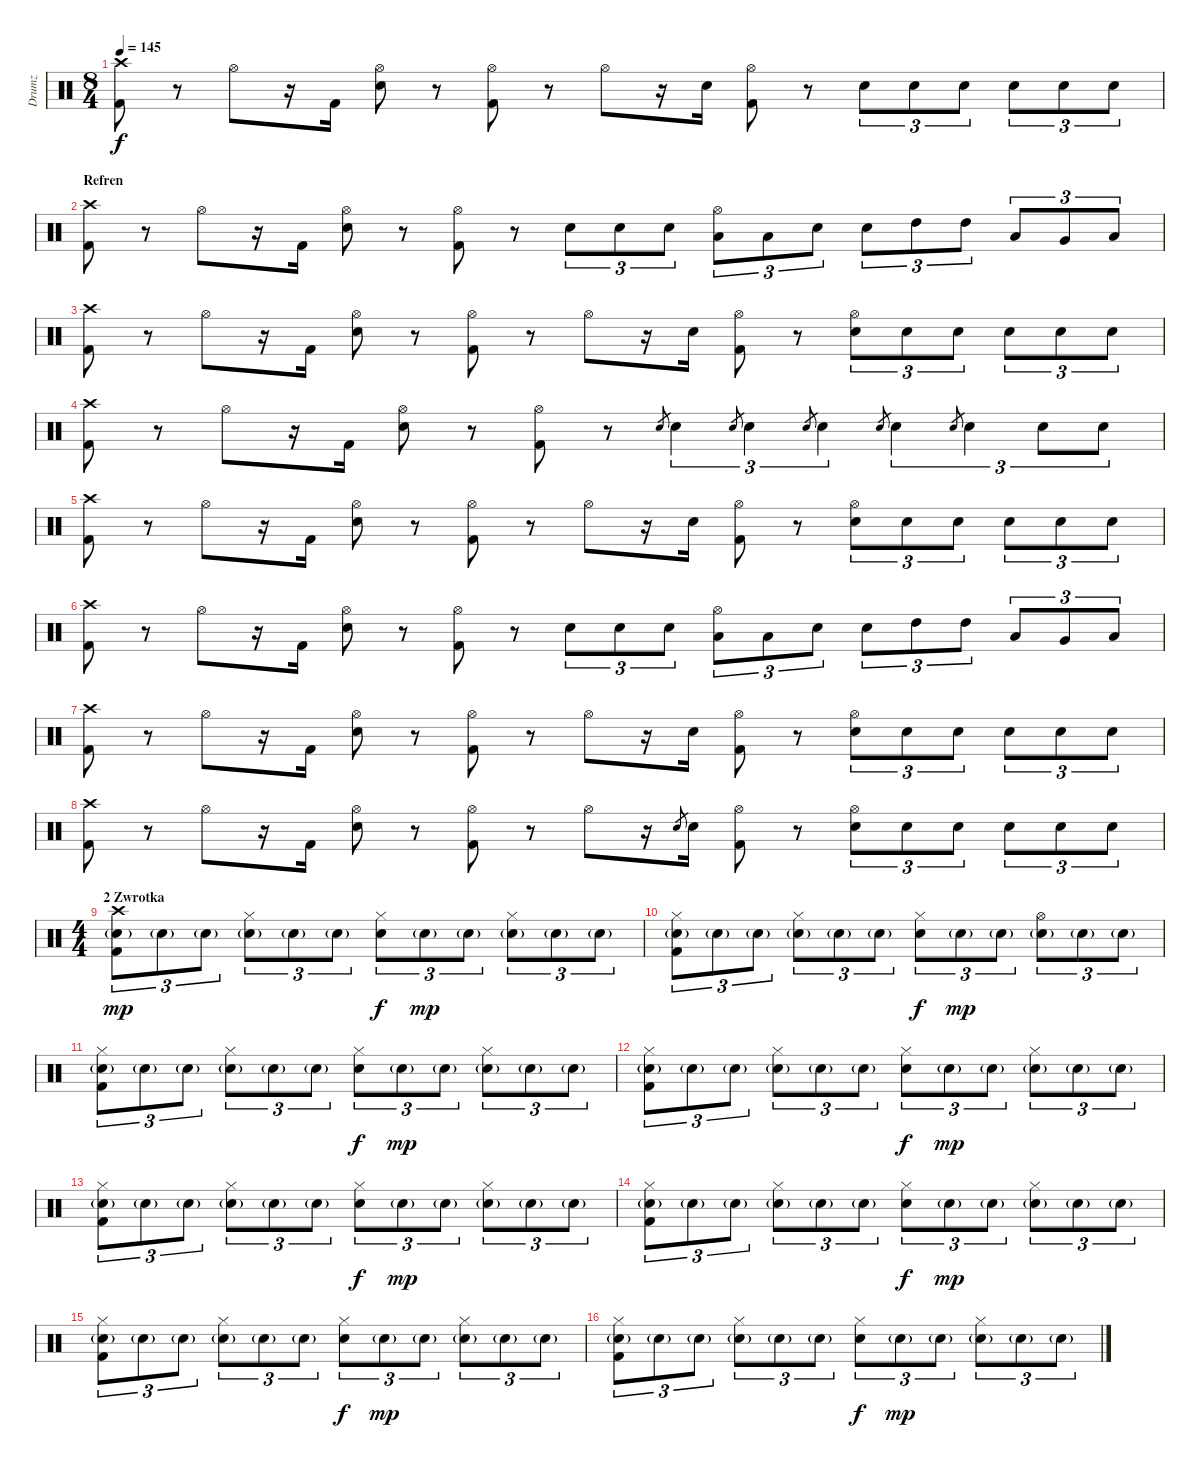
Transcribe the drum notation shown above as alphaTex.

\track ("Drumz" "Drumz") {instrument percussion}
\staff {score}
\articulation defaults
\ts (8 4)
\tempo 145
\clef neutral
\ks c
("Crash high (hit)" "Kick (hit) 2").8{dy f} r.8 "Hi-Hat (open)".8 r.16 "Kick (hit) 2".16 ("Hi-Hat (open)" "Electric Snare (hit)").8 r.8 ("Hi-Hat (open)" "Kick (hit) 2").8 r.8 "Hi-Hat (open)".8 r.16 "Electric Snare (hit)".16 ("Hi-Hat (open)" "Kick (hit) 2").8 r.8 "Electric Snare (hit)".8{tu (3 2)} "Electric Snare (hit)".8{tu (3 2)} "Electric Snare (hit)".8{tu (3 2)} "Electric Snare (hit)".8{tu (3 2)} "Electric Snare (hit)".8{tu (3 2)} "Electric Snare (hit)".8{tu (3 2)} |
\section ("" "Refren")
("Crash high (hit)" "Kick (hit) 2").8 r.8 "Hi-Hat (open)".8 r.16 "Kick (hit) 2".16 ("Hi-Hat (open)" "Electric Snare (hit)").8 r.8 ("Hi-Hat (open)" "Kick (hit) 2").8 r.8 "Electric Snare (hit)".8{tu (3 2)} "Electric Snare (hit)".8{tu (3 2)} "Electric Snare (hit)".8{tu (3 2)} ("Hi-Hat (open)" "Low Floor Tom (hit)").8{tu (3 2)} "Low Floor Tom (hit)".8{tu (3 2)} "Electric Snare (hit)".8{tu (3 2)} "Electric Snare (hit)".8{tu (3 2)} "High Tom (hit)".8{tu (3 2)} "High Tom (hit)".8{tu (3 2)} "Low Tom (hit)".8{tu (3 2)} "Very Low Tom (hit)".8{tu (3 2)} "Low Floor Tom (hit)".8{tu (3 2)} |
("Crash high (hit)" "Kick (hit) 2").8 r.8 "Hi-Hat (open)".8 r.16 "Kick (hit) 2".16 ("Hi-Hat (open)" "Electric Snare (hit)").8 r.8 ("Hi-Hat (open)" "Kick (hit) 2").8 r.8 "Hi-Hat (open)".8 r.16 "Electric Snare (hit)".16 ("Hi-Hat (open)" "Kick (hit) 2").8 r.8 ("Hi-Hat (open)" "Electric Snare (hit)").8{tu (3 2)} "Electric Snare (hit)".8{tu (3 2)} "Electric Snare (hit)".8{tu (3 2)} "Electric Snare (hit)".8{tu (3 2)} "Electric Snare (hit)".8{tu (3 2)} "Electric Snare (hit)".8{tu (3 2)} |
("Crash high (hit)" "Kick (hit) 2").8 r.8 "Hi-Hat (open)".8 r.16 "Kick (hit) 2".16 ("Hi-Hat (open)" "Electric Snare (hit)").8 r.8 ("Hi-Hat (open)" "Kick (hit) 2").8 r.8 "Electric Snare (hit)".8{gr} "Electric Snare (hit)".4{tu (3 2)} "Electric Snare (hit)".8{gr} "Electric Snare (hit)".4{tu (3 2)} "Electric Snare (hit)".8{gr} "Electric Snare (hit)".4{tu (3 2)} "Electric Snare (hit)".8{gr} "Electric Snare (hit)".4{tu (3 2)} "Electric Snare (hit)".8{gr} "Electric Snare (hit)".4{tu (3 2)} "Electric Snare (hit)".8{tu (3 2)} "Electric Snare (hit)".8{tu (3 2)} |
("Crash high (hit)" "Kick (hit) 2").8 r.8 "Hi-Hat (open)".8 r.16 "Kick (hit) 2".16 ("Hi-Hat (open)" "Electric Snare (hit)").8 r.8 ("Hi-Hat (open)" "Kick (hit) 2").8 r.8 "Hi-Hat (open)".8 r.16 "Electric Snare (hit)".16 ("Hi-Hat (open)" "Kick (hit) 2").8 r.8 ("Hi-Hat (open)" "Electric Snare (hit)").8{tu (3 2)} "Electric Snare (hit)".8{tu (3 2)} "Electric Snare (hit)".8{tu (3 2)} "Electric Snare (hit)".8{tu (3 2)} "Electric Snare (hit)".8{tu (3 2)} "Electric Snare (hit)".8{tu (3 2)} |
("Crash high (hit)" "Kick (hit) 2").8 r.8 "Hi-Hat (open)".8 r.16 "Kick (hit) 2".16 ("Hi-Hat (open)" "Electric Snare (hit)").8 r.8 ("Hi-Hat (open)" "Kick (hit) 2").8 r.8 "Electric Snare (hit)".8{tu (3 2)} "Electric Snare (hit)".8{tu (3 2)} "Electric Snare (hit)".8{tu (3 2)} ("Hi-Hat (open)" "Low Floor Tom (hit)").8{tu (3 2)} "Low Floor Tom (hit)".8{tu (3 2)} "Electric Snare (hit)".8{tu (3 2)} "Electric Snare (hit)".8{tu (3 2)} "High Tom (hit)".8{tu (3 2)} "High Tom (hit)".8{tu (3 2)} "Low Tom (hit)".8{tu (3 2)} "Very Low Tom (hit)".8{tu (3 2)} "Low Floor Tom (hit)".8{tu (3 2)} |
("Crash high (hit)" "Kick (hit) 2").8 r.8 "Hi-Hat (open)".8 r.16 "Kick (hit) 2".16 ("Hi-Hat (open)" "Electric Snare (hit)").8 r.8 ("Hi-Hat (open)" "Kick (hit) 2").8 r.8 "Hi-Hat (open)".8 r.16 "Electric Snare (hit)".16 ("Hi-Hat (open)" "Kick (hit) 2").8 r.8 ("Hi-Hat (open)" "Electric Snare (hit)").8{tu (3 2)} "Electric Snare (hit)".8{tu (3 2)} "Electric Snare (hit)".8{tu (3 2)} "Electric Snare (hit)".8{tu (3 2)} "Electric Snare (hit)".8{tu (3 2)} "Electric Snare (hit)".8{tu (3 2)} |
("Crash high (hit)" "Kick (hit) 2").8 r.8 "Hi-Hat (open)".8 r.16 "Kick (hit) 2".16 ("Hi-Hat (open)" "Electric Snare (hit)").8 r.8 ("Hi-Hat (open)" "Kick (hit) 2").8 r.8 "Hi-Hat (open)".8 r.16 "Electric Snare (hit)".8{gr} "Electric Snare (hit)".16 ("Hi-Hat (open)" "Kick (hit) 2").8 r.8 ("Hi-Hat (open)" "Electric Snare (hit)").8{tu (3 2)} "Electric Snare (hit)".8{tu (3 2)} "Electric Snare (hit)".8{tu (3 2)} "Electric Snare (hit)".8{tu (3 2)} "Electric Snare (hit)".8{tu (3 2)} "Electric Snare (hit)".8{tu (3 2)} |
\ts (4 4)
\section ("" "2 Zwrotka")
("Crash high (hit)" "Electric Snare (hit)"{g} "Kick (hit) 2").8{tu (3 2) dy mp} "Electric Snare (hit)"{g}.8{tu (3 2)} "Electric Snare (hit)"{g}.8{tu (3 2)} ("Hi-Hat (closed)" "Electric Snare (hit)"{g}).8{tu (3 2)} "Electric Snare (hit)"{g}.8{tu (3 2)} "Electric Snare (hit)"{g}.8{tu (3 2)} ("Hi-Hat (closed)" "Electric Snare (hit)").8{tu (3 2) dy f} "Electric Snare (hit)"{g}.8{tu (3 2) dy mp} "Electric Snare (hit)"{g}.8{tu (3 2)} ("Hi-Hat (closed)" "Electric Snare (hit)"{g}).8{tu (3 2)} "Electric Snare (hit)"{g}.8{tu (3 2)} "Electric Snare (hit)"{g}.8{tu (3 2)} |
("Hi-Hat (closed)" "Electric Snare (hit)"{g} "Kick (hit) 2").8{tu (3 2)} "Electric Snare (hit)"{g}.8{tu (3 2)} "Electric Snare (hit)"{g}.8{tu (3 2)} ("Hi-Hat (closed)" "Electric Snare (hit)"{g}).8{tu (3 2)} "Electric Snare (hit)"{g}.8{tu (3 2)} "Electric Snare (hit)"{g}.8{tu (3 2)} ("Hi-Hat (closed)" "Electric Snare (hit)").8{tu (3 2) dy f} "Electric Snare (hit)"{g}.8{tu (3 2) dy mp} "Electric Snare (hit)"{g}.8{tu (3 2)} ("Hi-Hat (open)" "Electric Snare (hit)"{g}).8{tu (3 2)} "Electric Snare (hit)"{g}.8{tu (3 2)} "Electric Snare (hit)"{g}.8{tu (3 2)} |
("Hi-Hat (closed)" "Electric Snare (hit)"{g} "Kick (hit) 2").8{tu (3 2)} "Electric Snare (hit)"{g}.8{tu (3 2)} "Electric Snare (hit)"{g}.8{tu (3 2)} ("Hi-Hat (closed)" "Electric Snare (hit)"{g}).8{tu (3 2)} "Electric Snare (hit)"{g}.8{tu (3 2)} "Electric Snare (hit)"{g}.8{tu (3 2)} ("Hi-Hat (closed)" "Electric Snare (hit)").8{tu (3 2) dy f} "Electric Snare (hit)"{g}.8{tu (3 2) dy mp} "Electric Snare (hit)"{g}.8{tu (3 2)} ("Hi-Hat (closed)" "Electric Snare (hit)"{g}).8{tu (3 2)} "Electric Snare (hit)"{g}.8{tu (3 2)} "Electric Snare (hit)"{g}.8{tu (3 2)} |
("Hi-Hat (closed)" "Electric Snare (hit)"{g} "Kick (hit) 2").8{tu (3 2)} "Electric Snare (hit)"{g}.8{tu (3 2)} "Electric Snare (hit)"{g}.8{tu (3 2)} ("Hi-Hat (closed)" "Electric Snare (hit)"{g}).8{tu (3 2)} "Electric Snare (hit)"{g}.8{tu (3 2)} "Electric Snare (hit)"{g}.8{tu (3 2)} ("Hi-Hat (closed)" "Electric Snare (hit)").8{tu (3 2) dy f} "Electric Snare (hit)"{g}.8{tu (3 2) dy mp} "Electric Snare (hit)"{g}.8{tu (3 2)} ("Hi-Hat (closed)" "Electric Snare (hit)"{g}).8{tu (3 2)} "Electric Snare (hit)"{g}.8{tu (3 2)} "Electric Snare (hit)"{g}.8{tu (3 2)} |
("Hi-Hat (closed)" "Electric Snare (hit)"{g} "Kick (hit) 2").8{tu (3 2)} "Electric Snare (hit)"{g}.8{tu (3 2)} "Electric Snare (hit)"{g}.8{tu (3 2)} ("Hi-Hat (closed)" "Electric Snare (hit)"{g}).8{tu (3 2)} "Electric Snare (hit)"{g}.8{tu (3 2)} "Electric Snare (hit)"{g}.8{tu (3 2)} ("Hi-Hat (closed)" "Electric Snare (hit)").8{tu (3 2) dy f} "Electric Snare (hit)"{g}.8{tu (3 2) dy mp} "Electric Snare (hit)"{g}.8{tu (3 2)} ("Hi-Hat (closed)" "Electric Snare (hit)"{g}).8{tu (3 2)} "Electric Snare (hit)"{g}.8{tu (3 2)} "Electric Snare (hit)"{g}.8{tu (3 2)} |
("Hi-Hat (closed)" "Electric Snare (hit)"{g} "Kick (hit) 2").8{tu (3 2)} "Electric Snare (hit)"{g}.8{tu (3 2)} "Electric Snare (hit)"{g}.8{tu (3 2)} ("Hi-Hat (closed)" "Electric Snare (hit)"{g}).8{tu (3 2)} "Electric Snare (hit)"{g}.8{tu (3 2)} "Electric Snare (hit)"{g}.8{tu (3 2)} ("Hi-Hat (closed)" "Electric Snare (hit)").8{tu (3 2) dy f} "Electric Snare (hit)"{g}.8{tu (3 2) dy mp} "Electric Snare (hit)"{g}.8{tu (3 2)} ("Hi-Hat (closed)" "Electric Snare (hit)"{g}).8{tu (3 2)} "Electric Snare (hit)"{g}.8{tu (3 2)} "Electric Snare (hit)"{g}.8{tu (3 2)} |
("Hi-Hat (closed)" "Electric Snare (hit)"{g} "Kick (hit) 2").8{tu (3 2)} "Electric Snare (hit)"{g}.8{tu (3 2)} "Electric Snare (hit)"{g}.8{tu (3 2)} ("Hi-Hat (closed)" "Electric Snare (hit)"{g}).8{tu (3 2)} "Electric Snare (hit)"{g}.8{tu (3 2)} "Electric Snare (hit)"{g}.8{tu (3 2)} ("Hi-Hat (closed)" "Electric Snare (hit)").8{tu (3 2) dy f} "Electric Snare (hit)"{g}.8{tu (3 2) dy mp} "Electric Snare (hit)"{g}.8{tu (3 2)} ("Hi-Hat (closed)" "Electric Snare (hit)"{g}).8{tu (3 2)} "Electric Snare (hit)"{g}.8{tu (3 2)} "Electric Snare (hit)"{g}.8{tu (3 2)} |
("Hi-Hat (closed)" "Electric Snare (hit)"{g} "Kick (hit) 2").8{tu (3 2)} "Electric Snare (hit)"{g}.8{tu (3 2)} "Electric Snare (hit)"{g}.8{tu (3 2)} ("Hi-Hat (closed)" "Electric Snare (hit)"{g}).8{tu (3 2)} "Electric Snare (hit)"{g}.8{tu (3 2)} "Electric Snare (hit)"{g}.8{tu (3 2)} ("Hi-Hat (closed)" "Electric Snare (hit)").8{tu (3 2) dy f} "Electric Snare (hit)"{g}.8{tu (3 2) dy mp} "Electric Snare (hit)"{g}.8{tu (3 2)} ("Hi-Hat (closed)" "Electric Snare (hit)"{g}).8{tu (3 2)} "Electric Snare (hit)"{g}.8{tu (3 2)} "Electric Snare (hit)"{g}.8{tu (3 2)}
